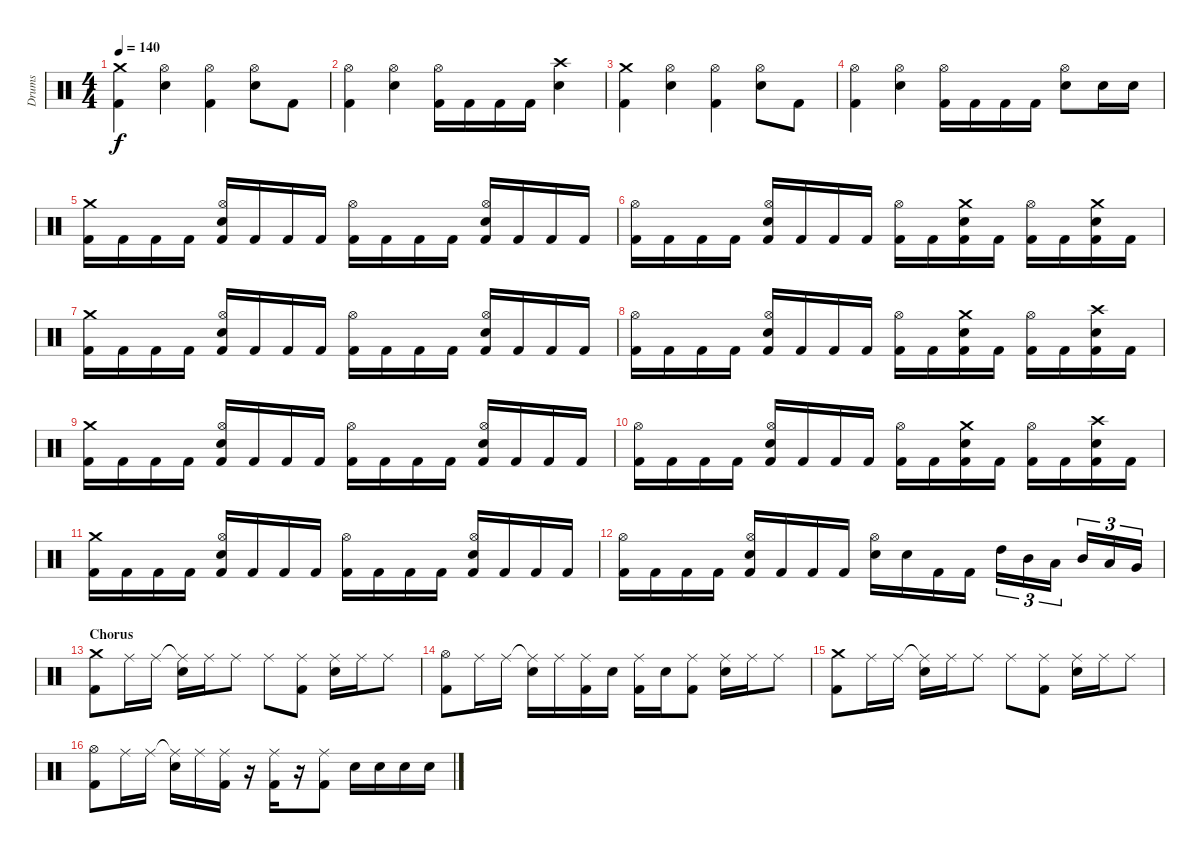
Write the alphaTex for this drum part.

\track ("Drums" "Drums") {instrument percussion}
\staff {score}
\articulation defaults
\ts (4 4)
\tempo 140
\clef neutral
\ks c
("Crash medium (hit)" "Kick (hit) 2").4{dy f} ("Hi-Hat (open)" "Snare (hit) 2").4 ("Hi-Hat (open)" "Kick (hit) 2").4 ("Hi-Hat (open)" "Snare (hit) 2").8 "Kick (hit) 2".8 |
("Hi-Hat (open)" "Kick (hit) 2").4 ("Hi-Hat (open)" "Snare (hit) 2").4 ("Hi-Hat (open)" "Kick (hit) 2").16 "Kick (hit) 2".16 "Kick (hit) 2".16 "Kick (hit) 2".16 ("Crash high (hit)" "Snare (hit) 2").4 |
("Crash medium (hit)" "Kick (hit) 2").4 ("Hi-Hat (open)" "Snare (hit) 2").4 ("Hi-Hat (open)" "Kick (hit) 2").4 ("Hi-Hat (open)" "Snare (hit) 2").8 "Kick (hit) 2".8 |
("Hi-Hat (open)" "Kick (hit) 2").4 ("Hi-Hat (open)" "Snare (hit) 2").4 ("Hi-Hat (open)" "Kick (hit) 2").16 "Kick (hit) 2".16 "Kick (hit) 2".16 "Kick (hit) 2".16 ("Hi-Hat (open)" "Snare (hit) 2").8 "Snare (hit) 2".16 "Snare (hit) 2".16 |
("Crash medium (hit)" "Kick (hit) 2").16 "Kick (hit) 2".16 "Kick (hit) 2".16 "Kick (hit) 2".16 ("Hi-Hat (open)" "Snare (hit) 2" "Kick (hit) 2").16 "Kick (hit) 2".16 "Kick (hit) 2".16 "Kick (hit) 2".16 ("Hi-Hat (open)" "Kick (hit) 2").16 "Kick (hit) 2".16 "Kick (hit) 2".16 "Kick (hit) 2".16 ("Hi-Hat (open)" "Snare (hit) 2" "Kick (hit) 2").16 "Kick (hit) 2".16 "Kick (hit) 2".16 "Kick (hit) 2".16 |
("Hi-Hat (open)" "Kick (hit) 2").16 "Kick (hit) 2".16 "Kick (hit) 2".16 "Kick (hit) 2".16 ("Hi-Hat (open)" "Snare (hit) 2" "Kick (hit) 2").16 "Kick (hit) 2".16 "Kick (hit) 2".16 "Kick (hit) 2".16 ("Hi-Hat (open)" "Kick (hit) 2").16 "Kick (hit) 2".16 ("Crash medium (hit)" "Snare (hit) 2" "Kick (hit) 2").16 "Kick (hit) 2".16 ("Hi-Hat (open)" "Kick (hit) 2").16 "Kick (hit) 2".16 ("Crash medium (hit)" "Snare (hit) 2" "Kick (hit) 2").16 "Kick (hit) 2".16 |
("Crash medium (hit)" "Kick (hit) 2").16 "Kick (hit) 2".16 "Kick (hit) 2".16 "Kick (hit) 2".16 ("Hi-Hat (open)" "Snare (hit) 2" "Kick (hit) 2").16 "Kick (hit) 2".16 "Kick (hit) 2".16 "Kick (hit) 2".16 ("Hi-Hat (open)" "Kick (hit) 2").16 "Kick (hit) 2".16 "Kick (hit) 2".16 "Kick (hit) 2".16 ("Hi-Hat (open)" "Snare (hit) 2" "Kick (hit) 2").16 "Kick (hit) 2".16 "Kick (hit) 2".16 "Kick (hit) 2".16 |
("Hi-Hat (open)" "Kick (hit) 2").16 "Kick (hit) 2".16 "Kick (hit) 2".16 "Kick (hit) 2".16 ("Hi-Hat (open)" "Snare (hit) 2" "Kick (hit) 2").16 "Kick (hit) 2".16 "Kick (hit) 2".16 "Kick (hit) 2".16 ("Hi-Hat (open)" "Kick (hit) 2").16 "Kick (hit) 2".16 ("Crash medium (hit)" "Snare (hit) 2" "Kick (hit) 2").16 "Kick (hit) 2".16 ("Hi-Hat (open)" "Kick (hit) 2").16 "Kick (hit) 2".16 ("Crash high (hit)" "Snare (hit) 2" "Kick (hit) 2").16 "Kick (hit) 2".16 |
("Crash medium (hit)" "Kick (hit) 2").16 "Kick (hit) 2".16 "Kick (hit) 2".16 "Kick (hit) 2".16 ("Hi-Hat (open)" "Snare (hit) 2" "Kick (hit) 2").16 "Kick (hit) 2".16 "Kick (hit) 2".16 "Kick (hit) 2".16 ("Hi-Hat (open)" "Kick (hit) 2").16 "Kick (hit) 2".16 "Kick (hit) 2".16 "Kick (hit) 2".16 ("Hi-Hat (open)" "Snare (hit) 2" "Kick (hit) 2").16 "Kick (hit) 2".16 "Kick (hit) 2".16 "Kick (hit) 2".16 |
("Hi-Hat (open)" "Kick (hit) 2").16 "Kick (hit) 2".16 "Kick (hit) 2".16 "Kick (hit) 2".16 ("Hi-Hat (open)" "Snare (hit) 2" "Kick (hit) 2").16 "Kick (hit) 2".16 "Kick (hit) 2".16 "Kick (hit) 2".16 ("Hi-Hat (open)" "Kick (hit) 2").16 "Kick (hit) 2".16 ("Crash medium (hit)" "Snare (hit) 2" "Kick (hit) 2").16 "Kick (hit) 2".16 ("Hi-Hat (open)" "Kick (hit) 2").16 "Kick (hit) 2".16 ("Crash high (hit)" "Snare (hit) 2" "Kick (hit) 2").16 "Kick (hit) 2".16 |
("Crash medium (hit)" "Kick (hit) 2").16 "Kick (hit) 2".16 "Kick (hit) 2".16 "Kick (hit) 2".16 ("Hi-Hat (open)" "Snare (hit) 2" "Kick (hit) 2").16 "Kick (hit) 2".16 "Kick (hit) 2".16 "Kick (hit) 2".16 ("Hi-Hat (open)" "Kick (hit) 2").16 "Kick (hit) 2".16 "Kick (hit) 2".16 "Kick (hit) 2".16 ("Hi-Hat (open)" "Snare (hit) 2" "Kick (hit) 2").16 "Kick (hit) 2".16 "Kick (hit) 2".16 "Kick (hit) 2".16 |
("Hi-Hat (open)" "Kick (hit) 2").16 "Kick (hit) 2".16 "Kick (hit) 2".16 "Kick (hit) 2".16 ("Hi-Hat (open)" "Snare (hit) 2" "Kick (hit) 2").16 "Kick (hit) 2".16 "Kick (hit) 2".16 "Kick (hit) 2".16 ("Hi-Hat (open)" "Snare (hit) 2").16 "Snare (hit) 2".16 "Kick (hit) 2".16 "Kick (hit) 2".16 "High Tom (hit)".16{tu (3 2)} "Mid Tom (hit)".16{tu (3 2)} "Low Tom (hit)".16{tu (3 2)} "Mid Tom (hit)".16{tu (3 2)} "Low Tom (hit)".16{tu (3 2)} "Very Low Tom (hit)".16{tu (3 2)} |
\section ("" "Chorus")
("Crash medium (hit)" "Kick (hit) 2").8 "Ride (middle)".16 "Ride (middle)".16 ("Ride (middle)"{t} "Snare (hit) 2").16 "Ride (middle)".16 "Ride (middle)".8 "Ride (middle)".8 ("Ride (middle)" "Kick (hit) 2").8 ("Ride (middle)" "Snare (hit) 2").16 "Ride (middle)".16 "Ride (middle)".8 |
("Hi-Hat (open)" "Kick (hit) 2").8 "Ride (middle)".16 "Ride (middle)".16 ("Ride (middle)"{t} "Snare (hit) 2").16 "Ride (middle)".16 ("Ride (middle)" "Kick (hit) 2").16 "Snare (hit) 2".16 ("Ride (middle)" "Kick (hit) 2").16 "Snare (hit) 2".16 ("Ride (middle)" "Kick (hit) 2").8 ("Ride (middle)" "Snare (hit) 2").16 "Ride (middle)".16 "Ride (middle)".8 |
("Crash medium (hit)" "Kick (hit) 2").8 "Ride (middle)".16 "Ride (middle)".16 ("Ride (middle)"{t} "Snare (hit) 2").16 "Ride (middle)".16 "Ride (middle)".8 "Ride (middle)".8 ("Ride (middle)" "Kick (hit) 2").8 ("Ride (middle)" "Snare (hit) 2").16 "Ride (middle)".16 "Ride (middle)".8 |
("Hi-Hat (open)" "Kick (hit) 2").8 "Ride (middle)".16 "Ride (middle)".16 ("Ride (middle)"{t} "Snare (hit) 2").16 "Ride (middle)".16 ("Ride (middle)" "Kick (hit) 2").16 r.16 ("Ride (middle)" "Kick (hit) 2").16 r.16 ("Ride (middle)" "Kick (hit) 2").8 "Snare (hit) 2".16 "Snare (hit) 2".16 "Snare (hit) 2".16 "Snare (hit) 2".16
